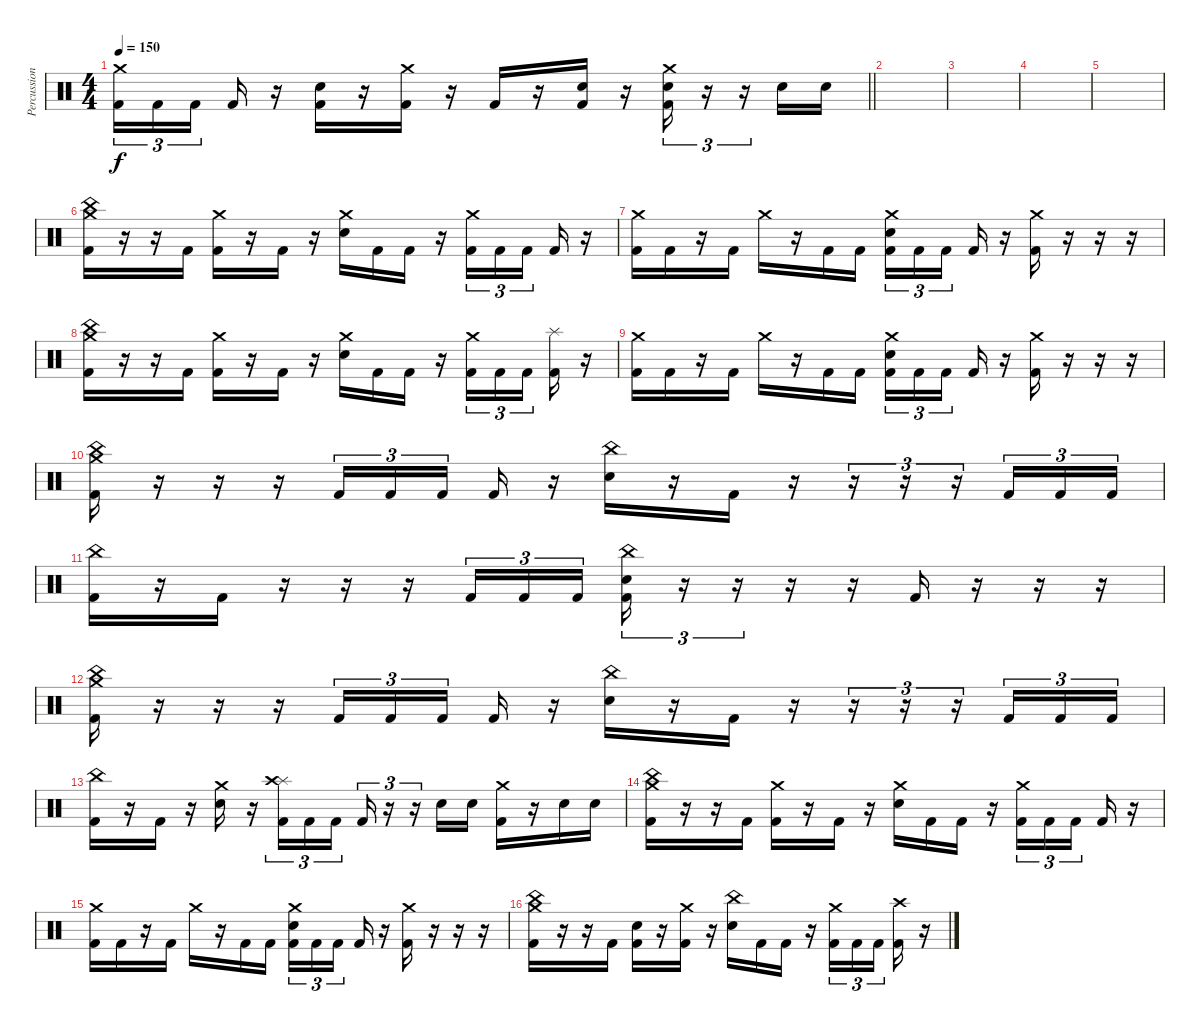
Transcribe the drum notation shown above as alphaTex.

\track ("Percussion" "Percussion") {instrument percussion}
\staff {score}
\articulation defaults
\ts (4 4)
\tempo 150
\clef neutral
\barLineRight lightlight
\ks c
("Crash medium (hit)" "Kick (hit) 2").16{tu (3 2) dy f} "Kick (hit) 2".16{tu (3 2)} "Kick (hit) 2".16{tu (3 2) beam splitsecondary} "Kick (hit) 2".16 r.16 ("Electric Snare (hit)" "Kick (hit) 2").16 r.16 ("Crash medium (hit)" "Kick (hit) 2").16 r.16 "Kick (hit) 2".16 r.16 ("Electric Snare (hit)" "Kick (hit) 2").16 r.16 ("Crash medium (hit)" "Electric Snare (hit)" "Kick (hit) 2").16{tu (3 2)} r.16{tu (3 2)} r.16{tu (3 2)} "Electric Snare (hit)".16 "Electric Snare (hit)".16 |
|
|
|
|
("China (hit)" "Crash medium (hit)" "Kick (hit) 2").16 r.16 r.16 "Kick (hit) 2".16 ("Crash medium (hit)" "Kick (hit) 2").16 r.16 "Kick (hit) 2".16 r.16 ("Crash medium (hit)" "Electric Snare (hit)").16 "Kick (hit) 2".16 "Kick (hit) 2".16 r.16 ("Crash medium (hit)" "Kick (hit) 2").16{tu (3 2)} "Kick (hit) 2".16{tu (3 2)} "Kick (hit) 2".16{tu (3 2) beam splitsecondary} "Kick (hit) 2".16 r.16 |
("Crash medium (hit)" "Kick (hit) 2").16 "Kick (hit) 2".16 r.16 "Kick (hit) 2".16 "Crash medium (hit)".16 r.16 "Kick (hit) 2".16 "Kick (hit) 2".16 ("Crash medium (hit)" "Electric Snare (hit)" "Kick (hit) 2").16{tu (3 2)} "Kick (hit) 2".16{tu (3 2)} "Kick (hit) 2".16{tu (3 2) beam splitsecondary} "Kick (hit) 2".16 r.16 ("Crash medium (hit)" "Kick (hit) 2").16 r.16 r.16 r.16 |
("China (hit)" "Crash medium (hit)" "Kick (hit) 2").16 r.16 r.16 "Kick (hit) 2".16 ("Crash medium (hit)" "Kick (hit) 2").16 r.16 "Kick (hit) 2".16 r.16 ("Crash medium (hit)" "Electric Snare (hit)").16 "Kick (hit) 2".16 "Kick (hit) 2".16 r.16 ("Crash medium (hit)" "Kick (hit) 2").16{tu (3 2)} "Kick (hit) 2".16{tu (3 2)} "Kick (hit) 2".16{tu (3 2) beam splitsecondary} ("Splash (hit)" "Kick (hit) 2").16 r.16 |
("Crash medium (hit)" "Kick (hit) 2").16 "Kick (hit) 2".16 r.16 "Kick (hit) 2".16 "Crash medium (hit)".16 r.16 "Kick (hit) 2".16 "Kick (hit) 2".16 ("Crash medium (hit)" "Electric Snare (hit)" "Kick (hit) 2").16{tu (3 2)} "Kick (hit) 2".16{tu (3 2)} "Kick (hit) 2".16{tu (3 2) beam splitsecondary} "Kick (hit) 2".16 r.16 ("Crash medium (hit)" "Kick (hit) 2").16 r.16 r.16 r.16 |
("China (hit)" "Crash medium (hit)" "Kick (hit) 2").16 r.16 r.16 r.16 "Kick (hit) 2".16{tu (3 2)} "Kick (hit) 2".16{tu (3 2)} "Kick (hit) 2".16{tu (3 2) beam splitsecondary} "Kick (hit) 2".16 r.16 ("China (hit)" "Electric Snare (hit)").16 r.16 "Kick (hit) 2".16 r.16 r.16{tu (3 2)} r.16{tu (3 2)} r.16{tu (3 2)} "Kick (hit) 2".16{tu (3 2)} "Kick (hit) 2".16{tu (3 2)} "Kick (hit) 2".16{tu (3 2)} |
("China (hit)" "Kick (hit) 2").16 r.16 "Kick (hit) 2".16 r.16 r.16 r.16 "Kick (hit) 2".16{tu (3 2)} "Kick (hit) 2".16{tu (3 2)} "Kick (hit) 2".16{tu (3 2)} ("China (hit)" "Electric Snare (hit)" "Kick (hit) 2").16{tu (3 2)} r.16{tu (3 2)} r.16{tu (3 2)} r.16 r.16 "Kick (hit) 2".16 r.16 r.16 r.16 |
("China (hit)" "Crash medium (hit)" "Kick (hit) 2").16 r.16 r.16 r.16 "Kick (hit) 2".16{tu (3 2)} "Kick (hit) 2".16{tu (3 2)} "Kick (hit) 2".16{tu (3 2) beam splitsecondary} "Kick (hit) 2".16 r.16 ("China (hit)" "Electric Snare (hit)").16 r.16 "Kick (hit) 2".16 r.16 r.16{tu (3 2)} r.16{tu (3 2)} r.16{tu (3 2)} "Kick (hit) 2".16{tu (3 2)} "Kick (hit) 2".16{tu (3 2)} "Kick (hit) 2".16{tu (3 2)} |
("China (hit)" "Kick (hit) 2").16 r.16 "Kick (hit) 2".16 r.16 ("Crash medium (hit)" "Electric Snare (hit)").16 r.16 ("Splash (hit)" "Crash high (hit)" "Kick (hit) 2").16{tu (3 2)} "Kick (hit) 2".16{tu (3 2)} "Kick (hit) 2".16{tu (3 2)} "Kick (hit) 2".16{tu (3 2)} r.16{tu (3 2)} r.16{tu (3 2)} "Electric Snare (hit)".16 "Electric Snare (hit)".16 ("Crash medium (hit)" "Kick (hit) 2").16 r.16 "Electric Snare (hit)".16 "Electric Snare (hit)".16 |
("China (hit)" "Crash medium (hit)" "Kick (hit) 2").16 r.16 r.16 "Kick (hit) 2".16 ("Crash medium (hit)" "Kick (hit) 2").16 r.16 "Kick (hit) 2".16 r.16 ("Crash medium (hit)" "Electric Snare (hit)").16 "Kick (hit) 2".16 "Kick (hit) 2".16 r.16 ("Crash medium (hit)" "Kick (hit) 2").16{tu (3 2)} "Kick (hit) 2".16{tu (3 2)} "Kick (hit) 2".16{tu (3 2) beam splitsecondary} "Kick (hit) 2".16 r.16 |
("Crash medium (hit)" "Kick (hit) 2").16 "Kick (hit) 2".16 r.16 "Kick (hit) 2".16 "Crash medium (hit)".16 r.16 "Kick (hit) 2".16 "Kick (hit) 2".16 ("Crash medium (hit)" "Electric Snare (hit)" "Kick (hit) 2").16{tu (3 2)} "Kick (hit) 2".16{tu (3 2)} "Kick (hit) 2".16{tu (3 2) beam splitsecondary} "Kick (hit) 2".16 r.16 ("Crash medium (hit)" "Kick (hit) 2").16 r.16 r.16 r.16 |
("China (hit)" "Crash medium (hit)" "Kick (hit) 2").16 r.16 r.16 "Kick (hit) 2".16 ("Electric Snare (hit)" "Kick (hit) 2").16 r.16 ("Crash medium (hit)" "Kick (hit) 2").16 r.16 ("China (hit)" "Electric Snare (hit)").16 "Kick (hit) 2".16 "Kick (hit) 2".16 r.16 ("Crash medium (hit)" "Kick (hit) 2").16{tu (3 2)} "Kick (hit) 2".16{tu (3 2)} "Kick (hit) 2".16{tu (3 2) beam splitsecondary} ("Crash high (hit)" "Kick (hit) 2").16 r.16
